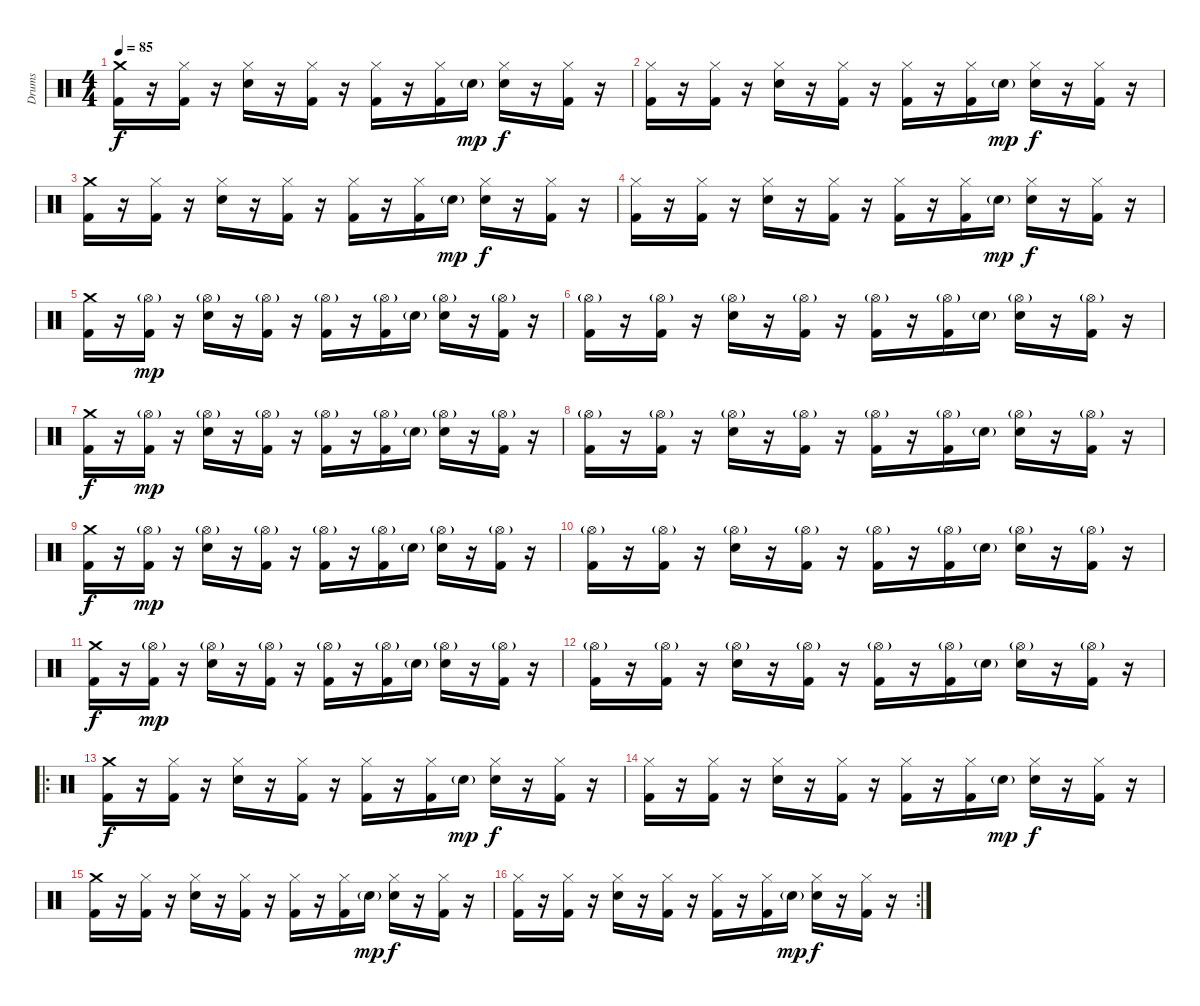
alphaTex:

\track ("Drums" "Drums") {instrument percussion}
\staff {score}
\articulation defaults
\ts (4 4)
\tempo 85
\clef neutral
\ks c
("Crash medium (hit)" "Kick (hit) 2").16{dy f} r.16 ("Hi-Hat (closed)" "Kick (hit) 2").16 r.16 ("Hi-Hat (closed)" "Snare (hit) 2").16 r.16 ("Hi-Hat (closed)" "Kick (hit) 2").16 r.16 ("Hi-Hat (closed)" "Kick (hit) 2").16 r.16 ("Hi-Hat (closed)" "Kick (hit) 2").16 "Snare (hit) 2"{g}.16{dy mp} ("Hi-Hat (closed)" "Snare (hit) 2").16{dy f} r.16 ("Hi-Hat (closed)" "Kick (hit) 2").16 r.16 |
("Hi-Hat (closed)" "Kick (hit) 2").16 r.16 ("Hi-Hat (closed)" "Kick (hit) 2").16 r.16 ("Hi-Hat (closed)" "Snare (hit) 2").16 r.16 ("Hi-Hat (closed)" "Kick (hit) 2").16 r.16 ("Hi-Hat (closed)" "Kick (hit) 2").16 r.16 ("Hi-Hat (closed)" "Kick (hit) 2").16 "Snare (hit) 2"{g}.16{dy mp} ("Hi-Hat (closed)" "Snare (hit) 2").16{dy f} r.16 ("Hi-Hat (closed)" "Kick (hit) 2").16 r.16 |
("Crash medium (hit)" "Kick (hit) 2").16 r.16 ("Hi-Hat (closed)" "Kick (hit) 2").16 r.16 ("Hi-Hat (closed)" "Snare (hit) 2").16 r.16 ("Hi-Hat (closed)" "Kick (hit) 2").16 r.16 ("Hi-Hat (closed)" "Kick (hit) 2").16 r.16 ("Hi-Hat (closed)" "Kick (hit) 2").16 "Snare (hit) 2"{g}.16{dy mp} ("Hi-Hat (closed)" "Snare (hit) 2").16{dy f} r.16 ("Hi-Hat (closed)" "Kick (hit) 2").16 r.16 |
("Hi-Hat (closed)" "Kick (hit) 2").16 r.16 ("Hi-Hat (closed)" "Kick (hit) 2").16 r.16 ("Hi-Hat (closed)" "Snare (hit) 2").16 r.16 ("Hi-Hat (closed)" "Kick (hit) 2").16 r.16 ("Hi-Hat (closed)" "Kick (hit) 2").16 r.16 ("Hi-Hat (closed)" "Kick (hit) 2").16 "Snare (hit) 2"{g}.16{dy mp} ("Hi-Hat (closed)" "Snare (hit) 2").16{dy f} r.16 ("Hi-Hat (closed)" "Kick (hit) 2").16 r.16 |
("Crash medium (hit)" "Kick (hit) 2").16 r.16 ("Hi-Hat (open)"{g} "Kick (hit) 2").16{dy mp} r.16 ("Hi-Hat (open)"{g} "Snare (hit) 2").16 r.16 ("Hi-Hat (open)"{g} "Kick (hit) 2").16 r.16 ("Hi-Hat (open)"{g} "Kick (hit) 2").16 r.16 ("Hi-Hat (open)"{g} "Kick (hit) 2").16 "Snare (hit) 2"{g}.16 ("Hi-Hat (open)"{g} "Snare (hit) 2").16 r.16 ("Hi-Hat (open)"{g} "Kick (hit) 2").16 r.16 |
("Hi-Hat (open)"{g} "Kick (hit) 2").16 r.16 ("Hi-Hat (open)"{g} "Kick (hit) 2").16 r.16 ("Hi-Hat (open)"{g} "Snare (hit) 2").16 r.16 ("Hi-Hat (open)"{g} "Kick (hit) 2").16 r.16 ("Hi-Hat (open)"{g} "Kick (hit) 2").16 r.16 ("Hi-Hat (open)"{g} "Kick (hit) 2").16 "Snare (hit) 2"{g}.16 ("Hi-Hat (open)"{g} "Snare (hit) 2").16 r.16 ("Hi-Hat (open)"{g} "Kick (hit) 2").16 r.16 |
("Crash medium (hit)" "Kick (hit) 2").16{dy f} r.16 ("Hi-Hat (open)"{g} "Kick (hit) 2").16{dy mp} r.16 ("Hi-Hat (open)"{g} "Snare (hit) 2").16 r.16 ("Hi-Hat (open)"{g} "Kick (hit) 2").16 r.16 ("Hi-Hat (open)"{g} "Kick (hit) 2").16 r.16 ("Hi-Hat (open)"{g} "Kick (hit) 2").16 "Snare (hit) 2"{g}.16 ("Hi-Hat (open)"{g} "Snare (hit) 2").16 r.16 ("Hi-Hat (open)"{g} "Kick (hit) 2").16 r.16 |
("Hi-Hat (open)"{g} "Kick (hit) 2").16 r.16 ("Hi-Hat (open)"{g} "Kick (hit) 2").16 r.16 ("Hi-Hat (open)"{g} "Snare (hit) 2").16 r.16 ("Hi-Hat (open)"{g} "Kick (hit) 2").16 r.16 ("Hi-Hat (open)"{g} "Kick (hit) 2").16 r.16 ("Hi-Hat (open)"{g} "Kick (hit) 2").16 "Snare (hit) 2"{g}.16 ("Hi-Hat (open)"{g} "Snare (hit) 2").16 r.16 ("Hi-Hat (open)"{g} "Kick (hit) 2").16 r.16 |
("Crash medium (hit)" "Kick (hit) 2").16{dy f} r.16 ("Hi-Hat (open)"{g} "Kick (hit) 2").16{dy mp} r.16 ("Hi-Hat (open)"{g} "Snare (hit) 2").16 r.16 ("Hi-Hat (open)"{g} "Kick (hit) 2").16 r.16 ("Hi-Hat (open)"{g} "Kick (hit) 2").16 r.16 ("Hi-Hat (open)"{g} "Kick (hit) 2").16 "Snare (hit) 2"{g}.16 ("Hi-Hat (open)"{g} "Snare (hit) 2").16 r.16 ("Hi-Hat (open)"{g} "Kick (hit) 2").16 r.16 |
("Hi-Hat (open)"{g} "Kick (hit) 2").16 r.16 ("Hi-Hat (open)"{g} "Kick (hit) 2").16 r.16 ("Hi-Hat (open)"{g} "Snare (hit) 2").16 r.16 ("Hi-Hat (open)"{g} "Kick (hit) 2").16 r.16 ("Hi-Hat (open)"{g} "Kick (hit) 2").16 r.16 ("Hi-Hat (open)"{g} "Kick (hit) 2").16 "Snare (hit) 2"{g}.16 ("Hi-Hat (open)"{g} "Snare (hit) 2").16 r.16 ("Hi-Hat (open)"{g} "Kick (hit) 2").16 r.16 |
("Crash medium (hit)" "Kick (hit) 2").16{dy f} r.16 ("Hi-Hat (open)"{g} "Kick (hit) 2").16{dy mp} r.16 ("Hi-Hat (open)"{g} "Snare (hit) 2").16 r.16 ("Hi-Hat (open)"{g} "Kick (hit) 2").16 r.16 ("Hi-Hat (open)"{g} "Kick (hit) 2").16 r.16 ("Hi-Hat (open)"{g} "Kick (hit) 2").16 "Snare (hit) 2"{g}.16 ("Hi-Hat (open)"{g} "Snare (hit) 2").16 r.16 ("Hi-Hat (open)"{g} "Kick (hit) 2").16 r.16 |
("Hi-Hat (open)"{g} "Kick (hit) 2").16 r.16 ("Hi-Hat (open)"{g} "Kick (hit) 2").16 r.16 ("Hi-Hat (open)"{g} "Snare (hit) 2").16 r.16 ("Hi-Hat (open)"{g} "Kick (hit) 2").16 r.16 ("Hi-Hat (open)"{g} "Kick (hit) 2").16 r.16 ("Hi-Hat (open)"{g} "Kick (hit) 2").16 "Snare (hit) 2"{g}.16 ("Hi-Hat (open)"{g} "Snare (hit) 2").16 r.16 ("Hi-Hat (open)"{g} "Kick (hit) 2").16 r.16 |
\ro
("Crash medium (hit)" "Kick (hit) 2").16{dy f} r.16 ("Hi-Hat (closed)" "Kick (hit) 2").16 r.16 ("Hi-Hat (closed)" "Snare (hit) 2").16 r.16 ("Hi-Hat (closed)" "Kick (hit) 2").16 r.16 ("Hi-Hat (closed)" "Kick (hit) 2").16 r.16 ("Hi-Hat (closed)" "Kick (hit) 2").16 "Snare (hit) 2"{g}.16{dy mp} ("Hi-Hat (closed)" "Snare (hit) 2").16{dy f} r.16 ("Hi-Hat (closed)" "Kick (hit) 2").16 r.16 |
("Hi-Hat (closed)" "Kick (hit) 2").16 r.16 ("Hi-Hat (closed)" "Kick (hit) 2").16 r.16 ("Hi-Hat (closed)" "Snare (hit) 2").16 r.16 ("Hi-Hat (closed)" "Kick (hit) 2").16 r.16 ("Hi-Hat (closed)" "Kick (hit) 2").16 r.16 ("Hi-Hat (closed)" "Kick (hit) 2").16 "Snare (hit) 2"{g}.16{dy mp} ("Hi-Hat (closed)" "Snare (hit) 2").16{dy f} r.16 ("Hi-Hat (closed)" "Kick (hit) 2").16 r.16 |
("Crash medium (hit)" "Kick (hit) 2").16 r.16 ("Hi-Hat (closed)" "Kick (hit) 2").16 r.16 ("Hi-Hat (closed)" "Snare (hit) 2").16 r.16 ("Hi-Hat (closed)" "Kick (hit) 2").16 r.16 ("Hi-Hat (closed)" "Kick (hit) 2").16 r.16 ("Hi-Hat (closed)" "Kick (hit) 2").16 "Snare (hit) 2"{g}.16{dy mp} ("Hi-Hat (closed)" "Snare (hit) 2").16{dy f} r.16 ("Hi-Hat (closed)" "Kick (hit) 2").16 r.16 |
\rc 2
("Hi-Hat (closed)" "Kick (hit) 2").16 r.16 ("Hi-Hat (closed)" "Kick (hit) 2").16 r.16 ("Hi-Hat (closed)" "Snare (hit) 2").16 r.16 ("Hi-Hat (closed)" "Kick (hit) 2").16 r.16 ("Hi-Hat (closed)" "Kick (hit) 2").16 r.16 ("Hi-Hat (closed)" "Kick (hit) 2").16 "Snare (hit) 2"{g}.16{dy mp} ("Hi-Hat (closed)" "Snare (hit) 2").16{dy f} r.16 ("Hi-Hat (closed)" "Kick (hit) 2").16 r.16
